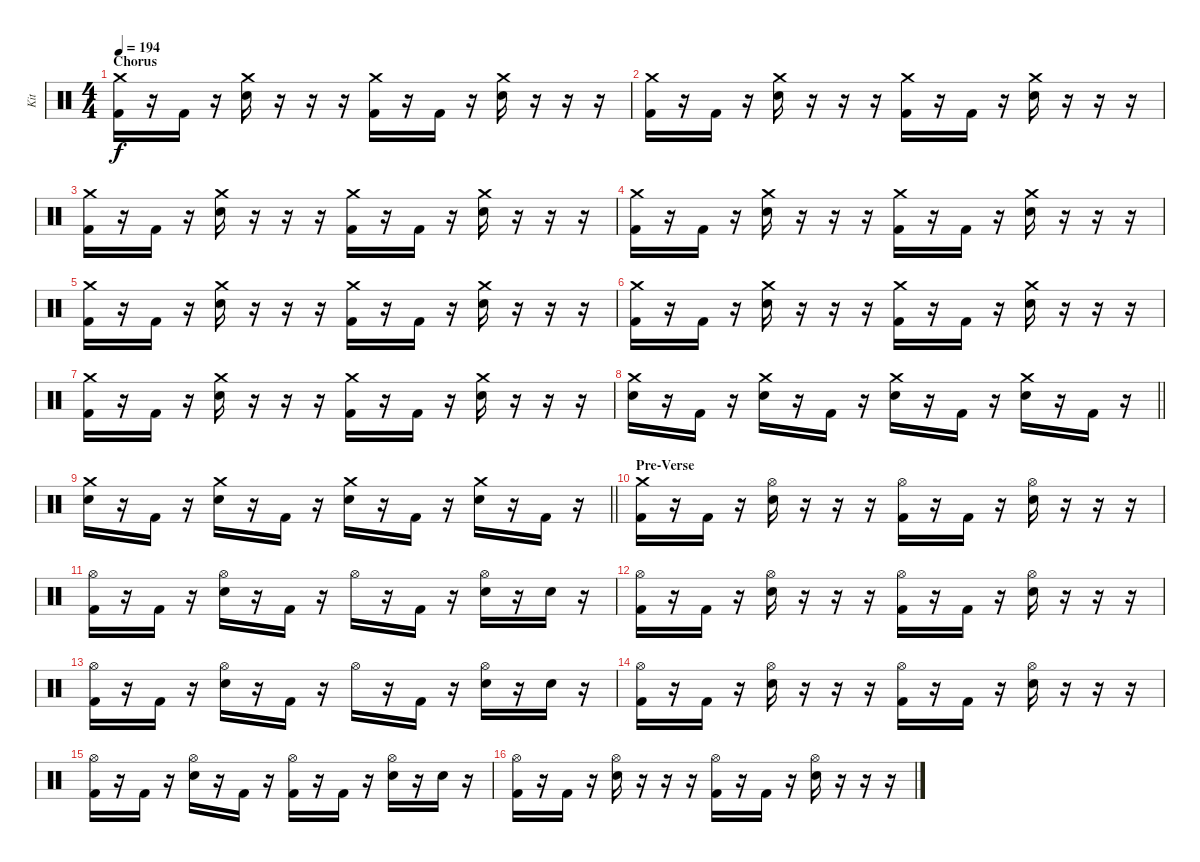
\track ("Kit" "Kit") {instrument percussion}
\staff {score}
\articulation defaults
\ts (4 4)
\section ("" "Chorus")
\tempo 194
\clef neutral
\ks c
("Crash medium (hit)" "Kick (hit) 2").16{dy f} r.16 "Kick (hit) 2".16 r.16 ("Crash medium (hit)" "Electric Snare (hit)").16 r.16 r.16 r.16 ("Crash medium (hit)" "Kick (hit) 2").16 r.16 "Kick (hit) 2".16 r.16 ("Crash medium (hit)" "Electric Snare (hit)").16 r.16 r.16 r.16 |
("Crash medium (hit)" "Kick (hit) 2").16 r.16 "Kick (hit) 2".16 r.16 ("Crash medium (hit)" "Electric Snare (hit)").16 r.16 r.16 r.16 ("Crash medium (hit)" "Kick (hit) 2").16 r.16 "Kick (hit) 2".16 r.16 ("Crash medium (hit)" "Electric Snare (hit)").16 r.16 r.16 r.16 |
("Crash medium (hit)" "Kick (hit) 2").16 r.16 "Kick (hit) 2".16 r.16 ("Crash medium (hit)" "Electric Snare (hit)").16 r.16 r.16 r.16 ("Crash medium (hit)" "Kick (hit) 2").16 r.16 "Kick (hit) 2".16 r.16 ("Crash medium (hit)" "Electric Snare (hit)").16 r.16 r.16 r.16 |
("Crash medium (hit)" "Kick (hit) 2").16 r.16 "Kick (hit) 2".16 r.16 ("Crash medium (hit)" "Electric Snare (hit)").16 r.16 r.16 r.16 ("Crash medium (hit)" "Kick (hit) 2").16 r.16 "Kick (hit) 2".16 r.16 ("Crash medium (hit)" "Electric Snare (hit)").16 r.16 r.16 r.16 |
("Crash medium (hit)" "Kick (hit) 2").16 r.16 "Kick (hit) 2".16 r.16 ("Crash medium (hit)" "Electric Snare (hit)").16 r.16 r.16 r.16 ("Crash medium (hit)" "Kick (hit) 2").16 r.16 "Kick (hit) 2".16 r.16 ("Crash medium (hit)" "Electric Snare (hit)").16 r.16 r.16 r.16 |
("Crash medium (hit)" "Kick (hit) 2").16 r.16 "Kick (hit) 2".16 r.16 ("Crash medium (hit)" "Electric Snare (hit)").16 r.16 r.16 r.16 ("Crash medium (hit)" "Kick (hit) 2").16 r.16 "Kick (hit) 2".16 r.16 ("Crash medium (hit)" "Electric Snare (hit)").16 r.16 r.16 r.16 |
("Crash medium (hit)" "Kick (hit) 2").16 r.16 "Kick (hit) 2".16 r.16 ("Crash medium (hit)" "Electric Snare (hit)").16 r.16 r.16 r.16 ("Crash medium (hit)" "Kick (hit) 2").16 r.16 "Kick (hit) 2".16 r.16 ("Crash medium (hit)" "Electric Snare (hit)").16 r.16 r.16 r.16 |
\barLineRight lightlight
("Crash medium (hit)" "Electric Snare (hit)").16 r.16 "Kick (hit) 2".16 r.16 ("Crash medium (hit)" "Electric Snare (hit)").16 r.16 "Kick (hit) 2".16 r.16 ("Crash medium (hit)" "Electric Snare (hit)").16 r.16 "Kick (hit) 2".16 r.16 ("Crash medium (hit)" "Electric Snare (hit)").16 r.16 "Kick (hit) 2".16 r.16 |
\barLineRight lightlight
("Crash medium (hit)" "Electric Snare (hit)").16 r.16 "Kick (hit) 2".16 r.16 ("Crash medium (hit)" "Electric Snare (hit)").16 r.16 "Kick (hit) 2".16 r.16 ("Crash medium (hit)" "Electric Snare (hit)").16 r.16 "Kick (hit) 2".16 r.16 ("Crash medium (hit)" "Electric Snare (hit)").16 r.16 "Kick (hit) 2".16 r.16 |
\section ("" "Pre-Verse")
("Crash medium (hit)" "Kick (hit) 2").16 r.16 "Kick (hit) 2".16 r.16 ("Hi-Hat (open)" "Electric Snare (hit)").16 r.16 r.16 r.16 ("Hi-Hat (open)" "Kick (hit) 2").16 r.16 "Kick (hit) 2".16 r.16 ("Hi-Hat (open)" "Electric Snare (hit)").16 r.16 r.16 r.16 |
("Hi-Hat (open)" "Kick (hit) 2").16 r.16 "Kick (hit) 2".16 r.16 ("Hi-Hat (open)" "Electric Snare (hit)").16 r.16 "Kick (hit) 2".16 r.16 "Hi-Hat (open)".16 r.16 "Kick (hit) 2".16 r.16 ("Hi-Hat (open)" "Electric Snare (hit)").16 r.16 "Electric Snare (hit)".16 r.16 |
("Hi-Hat (open)" "Kick (hit) 2").16 r.16 "Kick (hit) 2".16 r.16 ("Hi-Hat (open)" "Electric Snare (hit)").16 r.16 r.16 r.16 ("Hi-Hat (open)" "Kick (hit) 2").16 r.16 "Kick (hit) 2".16 r.16 ("Hi-Hat (open)" "Electric Snare (hit)").16 r.16 r.16 r.16 |
("Hi-Hat (open)" "Kick (hit) 2").16 r.16 "Kick (hit) 2".16 r.16 ("Hi-Hat (open)" "Electric Snare (hit)").16 r.16 "Kick (hit) 2".16 r.16 "Hi-Hat (open)".16 r.16 "Kick (hit) 2".16 r.16 ("Hi-Hat (open)" "Electric Snare (hit)").16 r.16 "Electric Snare (hit)".16 r.16 |
("Hi-Hat (open)" "Kick (hit) 2").16 r.16 "Kick (hit) 2".16 r.16 ("Hi-Hat (open)" "Electric Snare (hit)").16 r.16 r.16 r.16 ("Hi-Hat (open)" "Kick (hit) 2").16 r.16 "Kick (hit) 2".16 r.16 ("Hi-Hat (open)" "Electric Snare (hit)").16 r.16 r.16 r.16 |
("Hi-Hat (open)" "Kick (hit) 2").16 r.16 "Kick (hit) 2".16 r.16 ("Hi-Hat (open)" "Electric Snare (hit)").16 r.16 "Kick (hit) 2".16 r.16 ("Hi-Hat (open)" "Kick (hit) 2").16 r.16 "Kick (hit) 2".16 r.16 ("Hi-Hat (open)" "Electric Snare (hit)").16 r.16 "Electric Snare (hit)".16 r.16 |
("Hi-Hat (open)" "Kick (hit) 2").16 r.16 "Kick (hit) 2".16 r.16 ("Hi-Hat (open)" "Electric Snare (hit)").16 r.16 r.16 r.16 ("Hi-Hat (open)" "Kick (hit) 2").16 r.16 "Kick (hit) 2".16 r.16 ("Hi-Hat (open)" "Electric Snare (hit)").16 r.16 r.16 r.16
